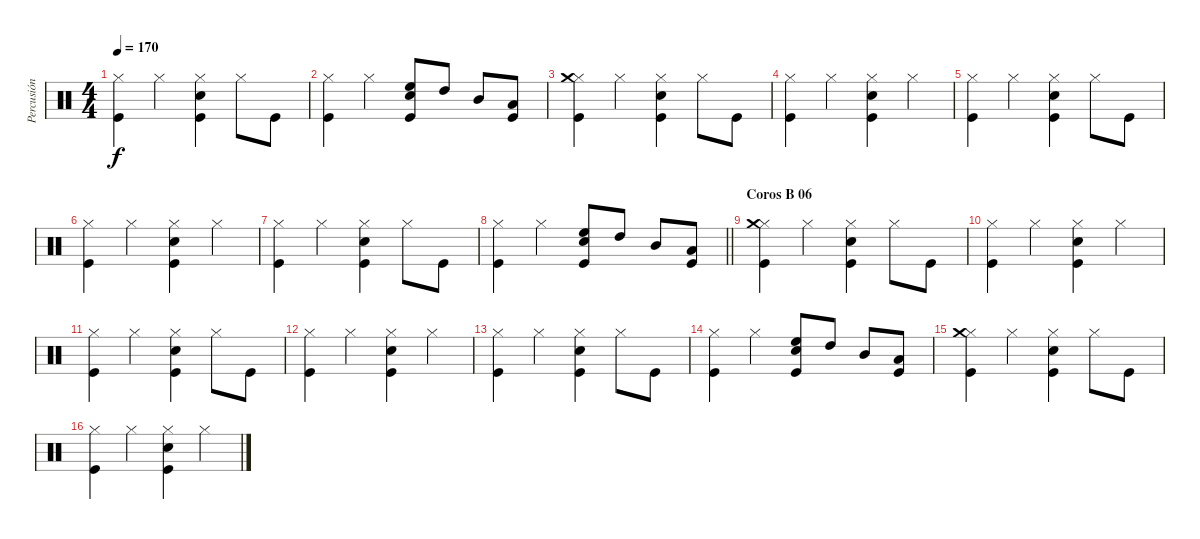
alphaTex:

\track ("Percusión" "Percusión") {instrument percussion}
\staff {score}
\articulation defaults
\ts (4 4)
\tempo 170
\clef neutral
\ks c
("Hi-Hat (closed)" "Kick (hit)").4{dy f} "Hi-Hat (closed)".4 ("Hi-Hat (closed)" "Snare (hit) 2" "Kick (hit)").4 "Hi-Hat (closed)".8 "Kick (hit)".8 |
("Hi-Hat (closed)" "Kick (hit)").4 "Hi-Hat (closed)".4 ("High Floor Tom (hit)" "Snare (hit) 2" "Kick (hit)").8 "High Tom (hit)".8 "Mid Tom (hit)".8 ("Low Tom (hit)" "Kick (hit)").8 |
("Hi-Hat (closed)" "Crash medium (hit)" "Kick (hit)").4 "Hi-Hat (closed)".4 ("Hi-Hat (closed)" "Snare (hit) 2" "Kick (hit)").4 "Hi-Hat (closed)".8 "Kick (hit)".8 |
("Hi-Hat (closed)" "Kick (hit)").4 "Hi-Hat (closed)".4 ("Hi-Hat (closed)" "Snare (hit) 2" "Kick (hit)").4 "Hi-Hat (closed)".4 |
("Hi-Hat (closed)" "Kick (hit)").4 "Hi-Hat (closed)".4 ("Hi-Hat (closed)" "Snare (hit) 2" "Kick (hit)").4 "Hi-Hat (closed)".8 "Kick (hit)".8 |
("Hi-Hat (closed)" "Kick (hit)").4 "Hi-Hat (closed)".4 ("Hi-Hat (closed)" "Snare (hit) 2" "Kick (hit)").4 "Hi-Hat (closed)".4 |
("Hi-Hat (closed)" "Kick (hit)").4 "Hi-Hat (closed)".4 ("Hi-Hat (closed)" "Snare (hit) 2" "Kick (hit)").4 "Hi-Hat (closed)".8 "Kick (hit)".8 |
\barLineRight lightlight
("Hi-Hat (closed)" "Kick (hit)").4 "Hi-Hat (closed)".4 ("High Floor Tom (hit)" "Snare (hit) 2" "Kick (hit)").8 "High Tom (hit)".8 "Mid Tom (hit)".8 ("Low Tom (hit)" "Kick (hit)").8 |
\section ("" "Coros B 06")
("Hi-Hat (closed)" "Crash medium (hit)" "Kick (hit)").4 "Hi-Hat (closed)".4 ("Hi-Hat (closed)" "Snare (hit) 2" "Kick (hit)").4 "Hi-Hat (closed)".8 "Kick (hit)".8 |
("Hi-Hat (closed)" "Kick (hit)").4 "Hi-Hat (closed)".4 ("Hi-Hat (closed)" "Snare (hit) 2" "Kick (hit)").4 "Hi-Hat (closed)".4 |
("Hi-Hat (closed)" "Kick (hit)").4 "Hi-Hat (closed)".4 ("Hi-Hat (closed)" "Snare (hit) 2" "Kick (hit)").4 "Hi-Hat (closed)".8 "Kick (hit)".8 |
("Hi-Hat (closed)" "Kick (hit)").4 "Hi-Hat (closed)".4 ("Hi-Hat (closed)" "Snare (hit) 2" "Kick (hit)").4 "Hi-Hat (closed)".4 |
("Hi-Hat (closed)" "Kick (hit)").4 "Hi-Hat (closed)".4 ("Hi-Hat (closed)" "Snare (hit) 2" "Kick (hit)").4 "Hi-Hat (closed)".8 "Kick (hit)".8 |
("Hi-Hat (closed)" "Kick (hit)").4 "Hi-Hat (closed)".4 ("High Floor Tom (hit)" "Snare (hit) 2" "Kick (hit)").8 "High Tom (hit)".8 "Mid Tom (hit)".8 ("Low Tom (hit)" "Kick (hit)").8 |
("Hi-Hat (closed)" "Crash medium (hit)" "Kick (hit)").4 "Hi-Hat (closed)".4 ("Hi-Hat (closed)" "Snare (hit) 2" "Kick (hit)").4 "Hi-Hat (closed)".8 "Kick (hit)".8 |
("Hi-Hat (closed)" "Kick (hit)").4 "Hi-Hat (closed)".4 ("Hi-Hat (closed)" "Snare (hit) 2" "Kick (hit)").4 "Hi-Hat (closed)".4
